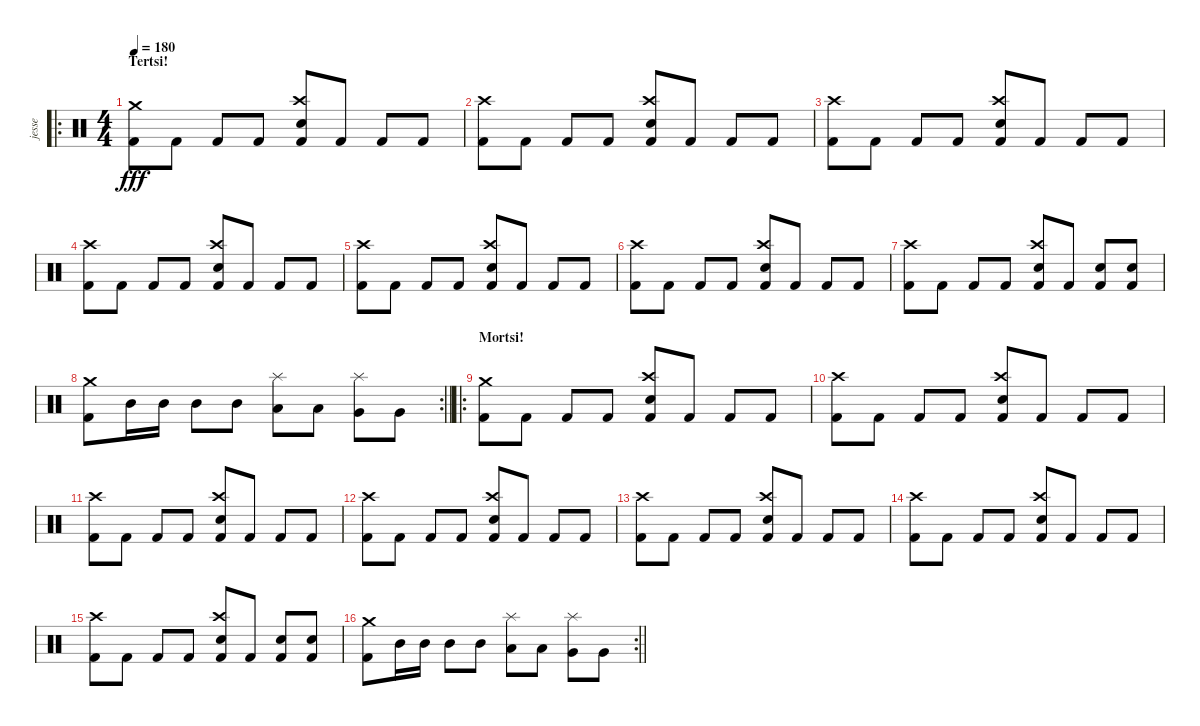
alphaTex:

\track ("jesse" "jesse") {instrument percussion}
\staff {score}
\articulation defaults
\ro
\ts (4 4)
\section ("" "Tertsi!")
\tempo 180
\clef neutral
\ks c
("Crash medium (hit)" "Kick (hit) 2").8{dy fff} "Kick (hit) 2".8 "Kick (hit) 2".8 "Kick (hit) 2".8 ("Crash high (hit)" "Snare (hit) 2" "Kick (hit) 2").8 "Kick (hit) 2".8 "Kick (hit) 2".8 "Kick (hit) 2".8 |
("Crash high (hit)" "Kick (hit) 2").8 "Kick (hit) 2".8 "Kick (hit) 2".8 "Kick (hit) 2".8 ("Crash high (hit)" "Snare (hit) 2" "Kick (hit) 2").8 "Kick (hit) 2".8 "Kick (hit) 2".8 "Kick (hit) 2".8 |
("Crash high (hit)" "Kick (hit) 2").8 "Kick (hit) 2".8 "Kick (hit) 2".8 "Kick (hit) 2".8 ("Crash high (hit)" "Snare (hit) 2" "Kick (hit) 2").8 "Kick (hit) 2".8 "Kick (hit) 2".8 "Kick (hit) 2".8 |
("Crash high (hit)" "Kick (hit) 2").8 "Kick (hit) 2".8 "Kick (hit) 2".8 "Kick (hit) 2".8 ("Crash high (hit)" "Snare (hit) 2" "Kick (hit) 2").8 "Kick (hit) 2".8 "Kick (hit) 2".8 "Kick (hit) 2".8 |
("Crash high (hit)" "Kick (hit) 2").8 "Kick (hit) 2".8 "Kick (hit) 2".8 "Kick (hit) 2".8 ("Crash high (hit)" "Snare (hit) 2" "Kick (hit) 2").8 "Kick (hit) 2".8 "Kick (hit) 2".8 "Kick (hit) 2".8 |
("Crash high (hit)" "Kick (hit) 2").8 "Kick (hit) 2".8 "Kick (hit) 2".8 "Kick (hit) 2".8 ("Crash high (hit)" "Snare (hit) 2" "Kick (hit) 2").8 "Kick (hit) 2".8 "Kick (hit) 2".8 "Kick (hit) 2".8 |
("Crash high (hit)" "Kick (hit) 2").8 "Kick (hit) 2".8 "Kick (hit) 2".8 "Kick (hit) 2".8 ("Crash high (hit)" "Snare (hit) 2" "Kick (hit) 2").8 "Kick (hit) 2".8 ("Snare (hit) 2" "Kick (hit) 2").8 ("Snare (hit) 2" "Kick (hit) 2").8 |
\rc 2
\barLineRight lightlight
("Crash medium (hit)" "Kick (hit) 2").8 "Mid Tom (hit)".16 "Mid Tom (hit)".16 "Mid Tom (hit)".8 "Mid Tom (hit)".8 ("Splash (hit)" "Low Tom (hit)").8 "Low Tom (hit)".8 ("Splash (hit)" "Very Low Tom (hit)").8 "Very Low Tom (hit)".8 |
\ro
\section ("" "Mortsi!")
("Crash medium (hit)" "Kick (hit) 2").8 "Kick (hit) 2".8 "Kick (hit) 2".8 "Kick (hit) 2".8 ("Crash high (hit)" "Snare (hit) 2" "Kick (hit) 2").8 "Kick (hit) 2".8 "Kick (hit) 2".8 "Kick (hit) 2".8 |
("Crash high (hit)" "Kick (hit) 2").8 "Kick (hit) 2".8 "Kick (hit) 2".8 "Kick (hit) 2".8 ("Crash high (hit)" "Snare (hit) 2" "Kick (hit) 2").8 "Kick (hit) 2".8 "Kick (hit) 2".8 "Kick (hit) 2".8 |
("Crash high (hit)" "Kick (hit) 2").8 "Kick (hit) 2".8 "Kick (hit) 2".8 "Kick (hit) 2".8 ("Crash high (hit)" "Snare (hit) 2" "Kick (hit) 2").8 "Kick (hit) 2".8 "Kick (hit) 2".8 "Kick (hit) 2".8 |
("Crash high (hit)" "Kick (hit) 2").8 "Kick (hit) 2".8 "Kick (hit) 2".8 "Kick (hit) 2".8 ("Crash high (hit)" "Snare (hit) 2" "Kick (hit) 2").8 "Kick (hit) 2".8 "Kick (hit) 2".8 "Kick (hit) 2".8 |
("Crash high (hit)" "Kick (hit) 2").8 "Kick (hit) 2".8 "Kick (hit) 2".8 "Kick (hit) 2".8 ("Crash high (hit)" "Snare (hit) 2" "Kick (hit) 2").8 "Kick (hit) 2".8 "Kick (hit) 2".8 "Kick (hit) 2".8 |
("Crash high (hit)" "Kick (hit) 2").8 "Kick (hit) 2".8 "Kick (hit) 2".8 "Kick (hit) 2".8 ("Crash high (hit)" "Snare (hit) 2" "Kick (hit) 2").8 "Kick (hit) 2".8 "Kick (hit) 2".8 "Kick (hit) 2".8 |
("Crash high (hit)" "Kick (hit) 2").8 "Kick (hit) 2".8 "Kick (hit) 2".8 "Kick (hit) 2".8 ("Crash high (hit)" "Snare (hit) 2" "Kick (hit) 2").8 "Kick (hit) 2".8 ("Snare (hit) 2" "Kick (hit) 2").8 ("Snare (hit) 2" "Kick (hit) 2").8 |
\rc 2
\barLineRight lightlight
("Crash medium (hit)" "Kick (hit) 2").8 "Mid Tom (hit)".16 "Mid Tom (hit)".16 "Mid Tom (hit)".8 "Mid Tom (hit)".8 ("Splash (hit)" "Low Tom (hit)").8 "Low Tom (hit)".8 ("Splash (hit)" "Very Low Tom (hit)").8 "Very Low Tom (hit)".8
